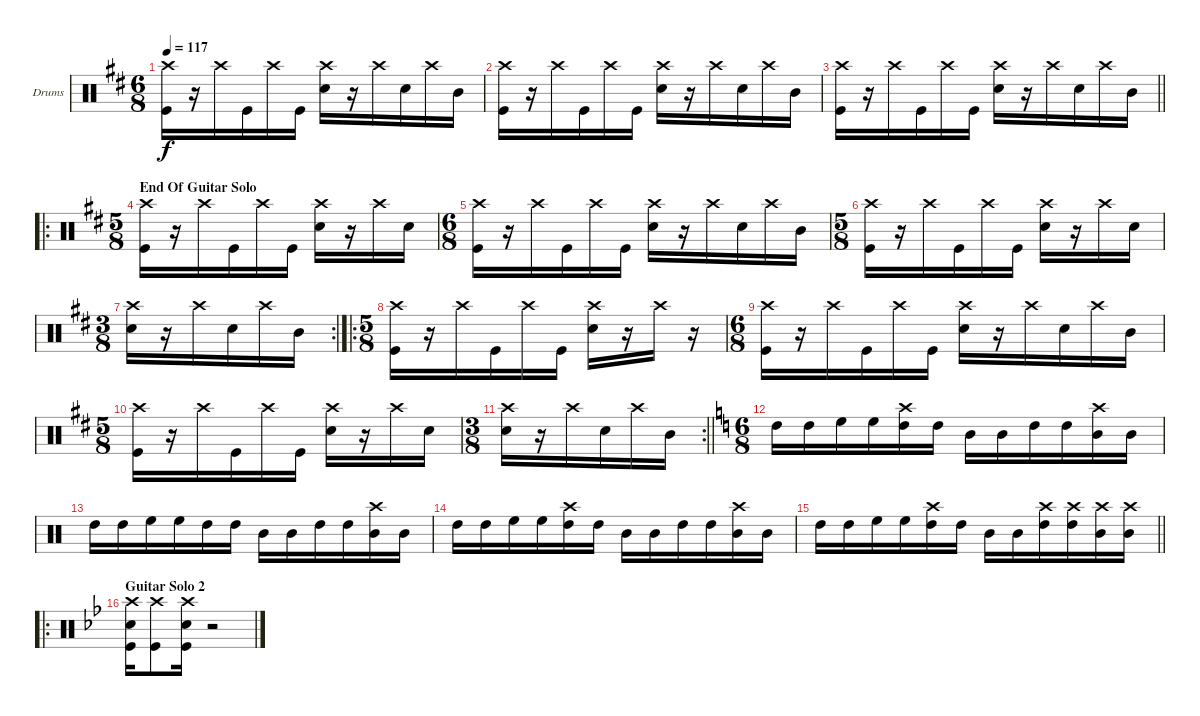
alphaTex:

\bracketExtendMode groupsimilarinstruments
\firstSystemTrackNameOrientation horizontal
\otherSystemsTrackNameOrientation horizontal
\track ("Drumkit" "Drums") {instrument percussion}
\staff {score}
\articulation defaults
\ts (6 8)
\tempo 117
\clef neutral
\ks d
("Crash high (hit)" "Kick (hit)").16{dy f} r.16 "Crash high (hit)".16 "Kick (hit)".16 "Crash high (hit)".16 "Kick (hit)".16 ("Crash high (hit)" "Snare (hit) 2").16 r.16 "Crash high (hit)".16 "Snare (hit) 2".16 "Crash high (hit)".16 "Mid Tom (hit)".16 |
("Crash high (hit)" "Kick (hit)").16 r.16 "Crash high (hit)".16 "Kick (hit)".16 "Crash high (hit)".16 "Kick (hit)".16 ("Crash high (hit)" "Snare (hit) 2").16 r.16 "Crash high (hit)".16 "Snare (hit) 2".16 "Crash high (hit)".16 "Mid Tom (hit)".16 |
\barLineRight lightlight
("Crash high (hit)" "Kick (hit)").16 r.16 "Crash high (hit)".16 "Kick (hit)".16 "Crash high (hit)".16 "Kick (hit)".16 ("Crash high (hit)" "Snare (hit) 2").16 r.16 "Crash high (hit)".16 "Snare (hit) 2".16 "Crash high (hit)".16 "Mid Tom (hit)".16 |
\ro
\ts (5 8)
\beaming (8 3 2)
\section ("" "End Of Guitar Solo")
("Crash high (hit)" "Kick (hit)").16 r.16 "Crash high (hit)".16 "Kick (hit)".16 "Crash high (hit)".16 "Kick (hit)".16 ("Crash high (hit)" "Snare (hit) 2").16 r.16 "Crash high (hit)".16 "Snare (hit) 2".16 |
\ts (6 8)
\beaming (8 3 3)
("Crash high (hit)" "Kick (hit)").16 r.16 "Crash high (hit)".16 "Kick (hit)".16 "Crash high (hit)".16 "Kick (hit)".16 ("Crash high (hit)" "Snare (hit) 2").16 r.16 "Crash high (hit)".16 "Snare (hit) 2".16 "Crash high (hit)".16 "Mid Tom (hit)".16 |
\ts (5 8)
\beaming (8 3 2)
("Crash high (hit)" "Kick (hit)").16 r.16 "Crash high (hit)".16 "Kick (hit)".16 "Crash high (hit)".16 "Kick (hit)".16 ("Crash high (hit)" "Snare (hit) 2").16 r.16 "Crash high (hit)".16 "Snare (hit) 2".16 |
\rc 2
\ts (3 8)
\beaming (8 3)
("Crash high (hit)" "Snare (hit) 2").16 r.16 "Crash high (hit)".16 "Snare (hit) 2".16 "Crash high (hit)".16 "Mid Tom (hit)".16 |
\ro
\ts (5 8)
\beaming (8 3 2)
("Crash high (hit)" "Kick (hit)").16 r.16 "Crash high (hit)".16 "Kick (hit)".16 "Crash high (hit)".16 "Kick (hit)".16 ("Crash high (hit)" "Snare (hit) 2").16 r.16 "Crash high (hit)".16 r.16 |
\ts (6 8)
\beaming (8 3 3)
("Crash high (hit)" "Kick (hit)").16 r.16 "Crash high (hit)".16 "Kick (hit)".16 "Crash high (hit)".16 "Kick (hit)".16 ("Crash high (hit)" "Snare (hit) 2").16 r.16 "Crash high (hit)".16 "Snare (hit) 2".16 "Crash high (hit)".16 "Mid Tom (hit)".16 |
\ts (5 8)
\beaming (8 3 2)
("Crash high (hit)" "Kick (hit)").16 r.16 "Crash high (hit)".16 "Kick (hit)".16 "Crash high (hit)".16 "Kick (hit)".16 ("Crash high (hit)" "Snare (hit) 2").16 r.16 "Crash high (hit)".16 "Snare (hit) 2".16 |
\rc 2
\ts (3 8)
\beaming (8 3)
\barLineRight lightlight
("Crash high (hit)" "Snare (hit) 2").16 r.16 "Crash high (hit)".16 "Snare (hit) 2".16 "Crash high (hit)".16 "Mid Tom (hit)".16 |
\ts (6 8)
\beaming (8 3 3)
\ks c "High Tom (hit)".16 "High Tom (hit)".16 "High Floor Tom (hit)".16 "High Floor Tom (hit)".16
("Crash high (hit)" "High Tom (hit)").16 "High Tom (hit)".16 "Mid Tom (hit)".16 "Mid Tom (hit)".16 "High Tom (hit)".16 "High Tom (hit)".16 ("Crash high (hit)" "Mid Tom (hit)").16 "Mid Tom (hit)".16 |
"High Tom (hit)".16 "High Tom (hit)".16 "High Floor Tom (hit)".16 "High Floor Tom (hit)".16 "High Tom (hit)".16 "High Tom (hit)".16 "Mid Tom (hit)".16 "Mid Tom (hit)".16 "High Tom (hit)".16 "High Tom (hit)".16 ("Crash high (hit)" "Mid Tom (hit)").16 "Mid Tom (hit)".16 |
"High Tom (hit)".16 "High Tom (hit)".16 "High Floor Tom (hit)".16 "High Floor Tom (hit)".16 ("Crash high (hit)" "High Tom (hit)").16 "High Tom (hit)".16 "Mid Tom (hit)".16 "Mid Tom (hit)".16 "High Tom (hit)".16 "High Tom (hit)".16 ("Crash high (hit)" "Mid Tom (hit)").16 "Mid Tom (hit)".16 |
\barLineRight lightlight "High Tom (hit)".16 "High Tom (hit)".16 "High Floor Tom (hit)".16 "High Floor Tom (hit)".16
("Crash high (hit)" "High Tom (hit)").16 "High Tom (hit)".16 "Mid Tom (hit)".16 "Mid Tom (hit)".16 ("Crash high (hit)" "High Tom (hit)").16 ("Crash high (hit)" "High Tom (hit)").16 ("Crash high (hit)" "Mid Tom (hit)").16 ("Crash high (hit)" "Mid Tom (hit)").16 |
\ro
\section ("" "Guitar Solo 2")
\ks bb
("Crash high (hit)" "Kick (hit)" "Snare (hit) 2").16 ("Crash high (hit)" "Kick (hit)").8 ("Crash high (hit)" "Kick (hit)" "Snare (hit) 2").16 r.2
